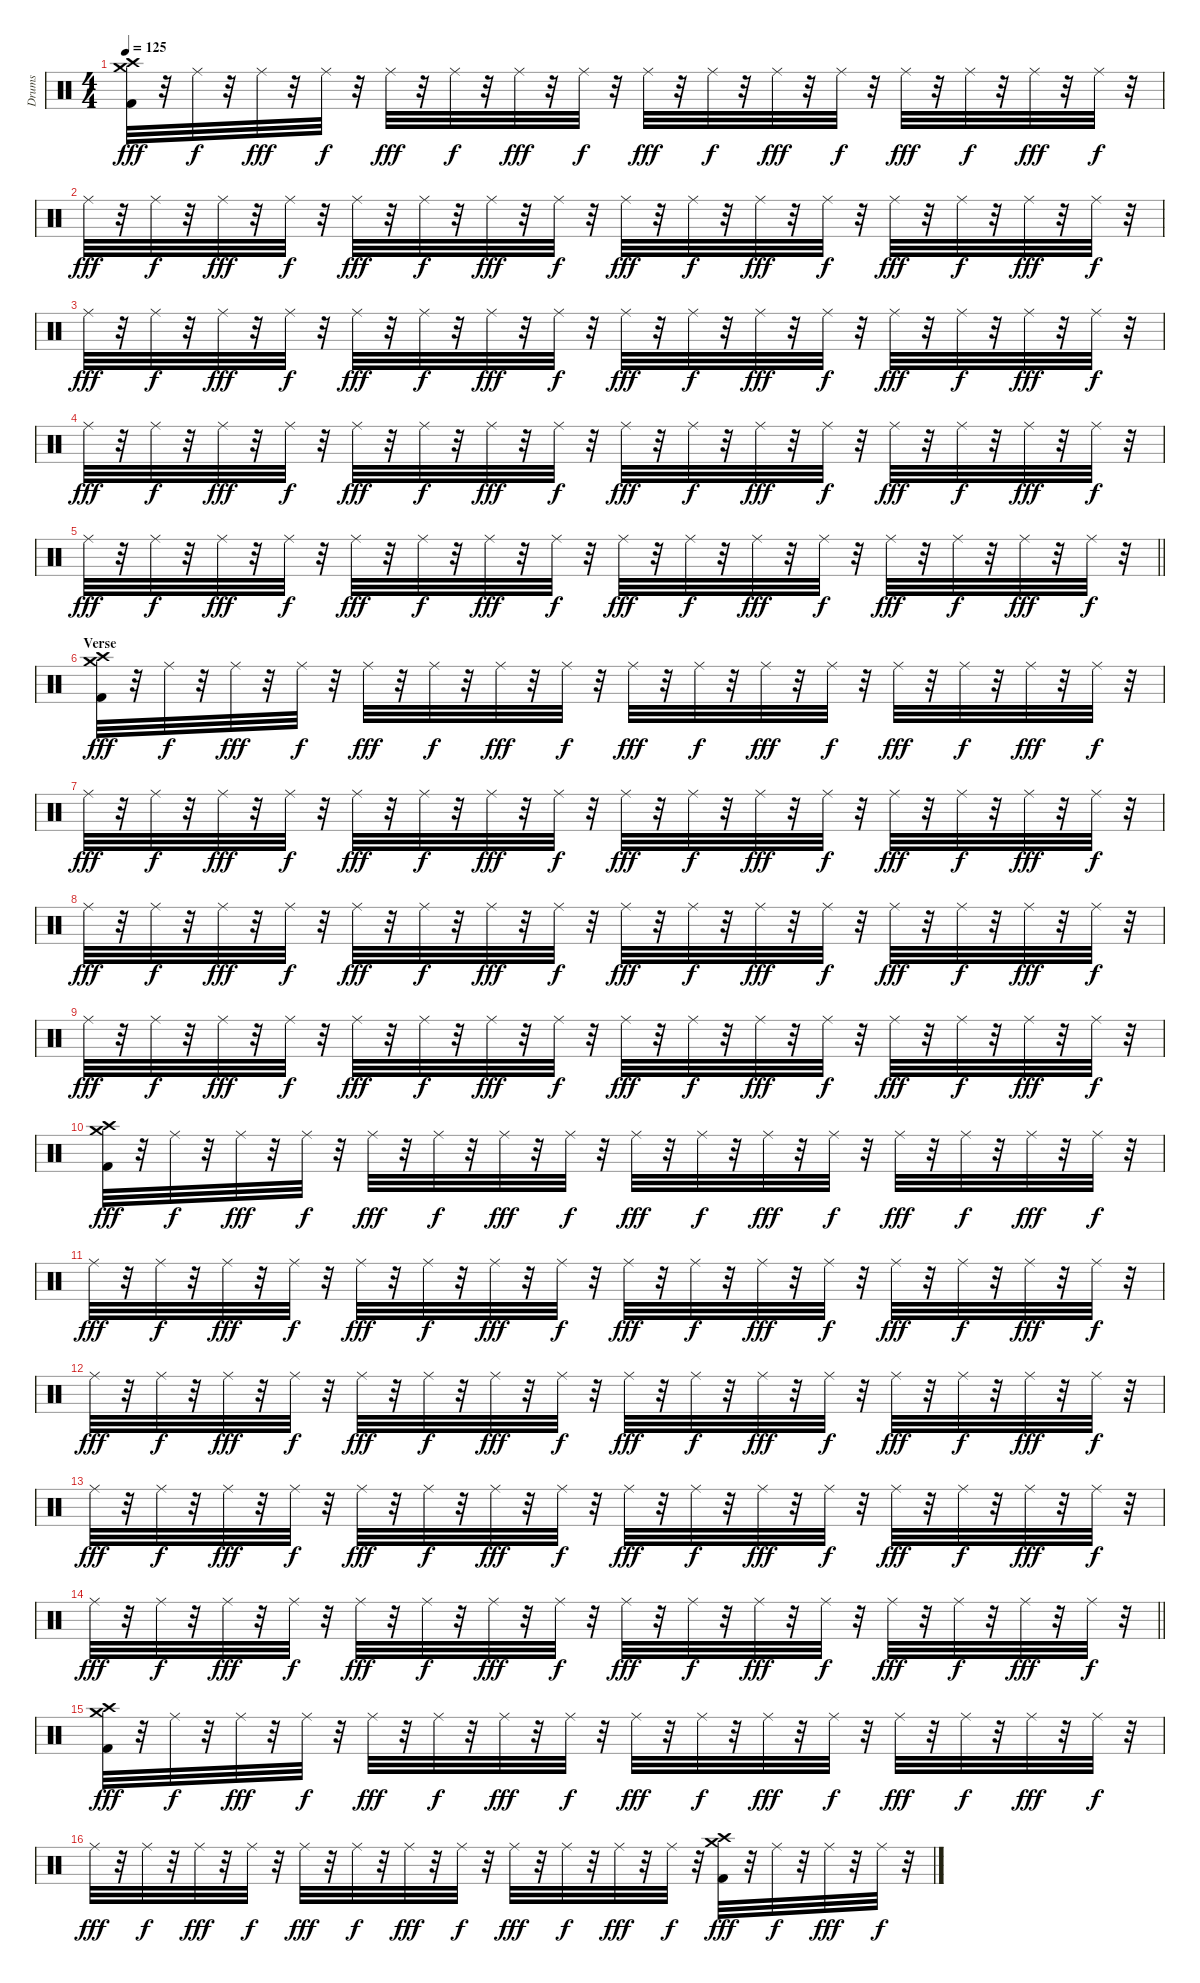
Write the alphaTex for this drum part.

\track ("Drums" "Drums") {instrument percussion}
\staff {score}
\articulation defaults
\ts (4 4)
\tempo 125
\clef neutral
\ks c
("Crash medium (hit)" "Crash high (hit)" "Kick (hit) 2").32{dy fff} r.32 "Ride (middle)".32{dy f} r.32 "Ride (middle)".32{dy fff} r.32 "Ride (middle)".32{dy f} r.32 "Ride (middle)".32{dy fff} r.32 "Ride (middle)".32{dy f} r.32 "Ride (middle)".32{dy fff} r.32 "Ride (middle)".32{dy f} r.32 "Ride (middle)".32{dy fff} r.32 "Ride (middle)".32{dy f} r.32 "Ride (middle)".32{dy fff} r.32 "Ride (middle)".32{dy f} r.32 "Ride (middle)".32{dy fff} r.32 "Ride (middle)".32{dy f} r.32 "Ride (middle)".32{dy fff} r.32 "Ride (middle)".32{dy f} r.32 |
"Ride (middle)".32{dy fff} r.32 "Ride (middle)".32{dy f} r.32 "Ride (middle)".32{dy fff} r.32 "Ride (middle)".32{dy f} r.32 "Ride (middle)".32{dy fff} r.32 "Ride (middle)".32{dy f} r.32 "Ride (middle)".32{dy fff} r.32 "Ride (middle)".32{dy f} r.32 "Ride (middle)".32{dy fff} r.32 "Ride (middle)".32{dy f} r.32 "Ride (middle)".32{dy fff} r.32 "Ride (middle)".32{dy f} r.32 "Ride (middle)".32{dy fff} r.32 "Ride (middle)".32{dy f} r.32 "Ride (middle)".32{dy fff} r.32 "Ride (middle)".32{dy f} r.32 |
"Ride (middle)".32{dy fff} r.32 "Ride (middle)".32{dy f} r.32 "Ride (middle)".32{dy fff} r.32 "Ride (middle)".32{dy f} r.32 "Ride (middle)".32{dy fff} r.32 "Ride (middle)".32{dy f} r.32 "Ride (middle)".32{dy fff} r.32 "Ride (middle)".32{dy f} r.32 "Ride (middle)".32{dy fff} r.32 "Ride (middle)".32{dy f} r.32 "Ride (middle)".32{dy fff} r.32 "Ride (middle)".32{dy f} r.32 "Ride (middle)".32{dy fff} r.32 "Ride (middle)".32{dy f} r.32 "Ride (middle)".32{dy fff} r.32 "Ride (middle)".32{dy f} r.32 |
"Ride (middle)".32{dy fff} r.32 "Ride (middle)".32{dy f} r.32 "Ride (middle)".32{dy fff} r.32 "Ride (middle)".32{dy f} r.32 "Ride (middle)".32{dy fff} r.32 "Ride (middle)".32{dy f} r.32 "Ride (middle)".32{dy fff} r.32 "Ride (middle)".32{dy f} r.32 "Ride (middle)".32{dy fff} r.32 "Ride (middle)".32{dy f} r.32 "Ride (middle)".32{dy fff} r.32 "Ride (middle)".32{dy f} r.32 "Ride (middle)".32{dy fff} r.32 "Ride (middle)".32{dy f} r.32 "Ride (middle)".32{dy fff} r.32 "Ride (middle)".32{dy f} r.32 |
\barLineRight lightlight "Ride (middle)".32{dy fff}
r.32 "Ride (middle)".32{dy f} r.32 "Ride (middle)".32{dy fff} r.32 "Ride (middle)".32{dy f} r.32 "Ride (middle)".32{dy fff} r.32 "Ride (middle)".32{dy f} r.32 "Ride (middle)".32{dy fff} r.32 "Ride (middle)".32{dy f} r.32 "Ride (middle)".32{dy fff} r.32 "Ride (middle)".32{dy f} r.32 "Ride (middle)".32{dy fff} r.32 "Ride (middle)".32{dy f} r.32 "Ride (middle)".32{dy fff} r.32 "Ride (middle)".32{dy f} r.32 "Ride (middle)".32{dy fff} r.32 "Ride (middle)".32{dy f} r.32 |
\section ("" "Verse")
("Crash medium (hit)" "Crash high (hit)" "Kick (hit) 2").32{dy fff} r.32 "Ride (middle)".32{dy f} r.32 "Ride (middle)".32{dy fff} r.32 "Ride (middle)".32{dy f} r.32 "Ride (middle)".32{dy fff} r.32 "Ride (middle)".32{dy f} r.32 "Ride (middle)".32{dy fff} r.32 "Ride (middle)".32{dy f} r.32 "Ride (middle)".32{dy fff} r.32 "Ride (middle)".32{dy f} r.32 "Ride (middle)".32{dy fff} r.32 "Ride (middle)".32{dy f} r.32 "Ride (middle)".32{dy fff} r.32 "Ride (middle)".32{dy f} r.32 "Ride (middle)".32{dy fff} r.32 "Ride (middle)".32{dy f} r.32 |
"Ride (middle)".32{dy fff} r.32 "Ride (middle)".32{dy f} r.32 "Ride (middle)".32{dy fff} r.32 "Ride (middle)".32{dy f} r.32 "Ride (middle)".32{dy fff} r.32 "Ride (middle)".32{dy f} r.32 "Ride (middle)".32{dy fff} r.32 "Ride (middle)".32{dy f} r.32 "Ride (middle)".32{dy fff} r.32 "Ride (middle)".32{dy f} r.32 "Ride (middle)".32{dy fff} r.32 "Ride (middle)".32{dy f} r.32 "Ride (middle)".32{dy fff} r.32 "Ride (middle)".32{dy f} r.32 "Ride (middle)".32{dy fff} r.32 "Ride (middle)".32{dy f} r.32 |
"Ride (middle)".32{dy fff} r.32 "Ride (middle)".32{dy f} r.32 "Ride (middle)".32{dy fff} r.32 "Ride (middle)".32{dy f} r.32 "Ride (middle)".32{dy fff} r.32 "Ride (middle)".32{dy f} r.32 "Ride (middle)".32{dy fff} r.32 "Ride (middle)".32{dy f} r.32 "Ride (middle)".32{dy fff} r.32 "Ride (middle)".32{dy f} r.32 "Ride (middle)".32{dy fff} r.32 "Ride (middle)".32{dy f} r.32 "Ride (middle)".32{dy fff} r.32 "Ride (middle)".32{dy f} r.32 "Ride (middle)".32{dy fff} r.32 "Ride (middle)".32{dy f} r.32 |
"Ride (middle)".32{dy fff} r.32 "Ride (middle)".32{dy f} r.32 "Ride (middle)".32{dy fff} r.32 "Ride (middle)".32{dy f} r.32 "Ride (middle)".32{dy fff} r.32 "Ride (middle)".32{dy f} r.32 "Ride (middle)".32{dy fff} r.32 "Ride (middle)".32{dy f} r.32 "Ride (middle)".32{dy fff} r.32 "Ride (middle)".32{dy f} r.32 "Ride (middle)".32{dy fff} r.32 "Ride (middle)".32{dy f} r.32 "Ride (middle)".32{dy fff} r.32 "Ride (middle)".32{dy f} r.32 "Ride (middle)".32{dy fff} r.32 "Ride (middle)".32{dy f} r.32 |
("Crash medium (hit)" "Crash high (hit)" "Kick (hit) 2").32{dy fff} r.32 "Ride (middle)".32{dy f} r.32 "Ride (middle)".32{dy fff} r.32 "Ride (middle)".32{dy f} r.32 "Ride (middle)".32{dy fff} r.32 "Ride (middle)".32{dy f} r.32 "Ride (middle)".32{dy fff} r.32 "Ride (middle)".32{dy f} r.32 "Ride (middle)".32{dy fff} r.32 "Ride (middle)".32{dy f} r.32 "Ride (middle)".32{dy fff} r.32 "Ride (middle)".32{dy f} r.32 "Ride (middle)".32{dy fff} r.32 "Ride (middle)".32{dy f} r.32 "Ride (middle)".32{dy fff} r.32 "Ride (middle)".32{dy f} r.32 |
"Ride (middle)".32{dy fff} r.32 "Ride (middle)".32{dy f} r.32 "Ride (middle)".32{dy fff} r.32 "Ride (middle)".32{dy f} r.32 "Ride (middle)".32{dy fff} r.32 "Ride (middle)".32{dy f} r.32 "Ride (middle)".32{dy fff} r.32 "Ride (middle)".32{dy f} r.32 "Ride (middle)".32{dy fff} r.32 "Ride (middle)".32{dy f} r.32 "Ride (middle)".32{dy fff} r.32 "Ride (middle)".32{dy f} r.32 "Ride (middle)".32{dy fff} r.32 "Ride (middle)".32{dy f} r.32 "Ride (middle)".32{dy fff} r.32 "Ride (middle)".32{dy f} r.32 |
"Ride (middle)".32{dy fff} r.32 "Ride (middle)".32{dy f} r.32 "Ride (middle)".32{dy fff} r.32 "Ride (middle)".32{dy f} r.32 "Ride (middle)".32{dy fff} r.32 "Ride (middle)".32{dy f} r.32 "Ride (middle)".32{dy fff} r.32 "Ride (middle)".32{dy f} r.32 "Ride (middle)".32{dy fff} r.32 "Ride (middle)".32{dy f} r.32 "Ride (middle)".32{dy fff} r.32 "Ride (middle)".32{dy f} r.32 "Ride (middle)".32{dy fff} r.32 "Ride (middle)".32{dy f} r.32 "Ride (middle)".32{dy fff} r.32 "Ride (middle)".32{dy f} r.32 |
"Ride (middle)".32{dy fff} r.32 "Ride (middle)".32{dy f} r.32 "Ride (middle)".32{dy fff} r.32 "Ride (middle)".32{dy f} r.32 "Ride (middle)".32{dy fff} r.32 "Ride (middle)".32{dy f} r.32 "Ride (middle)".32{dy fff} r.32 "Ride (middle)".32{dy f} r.32 "Ride (middle)".32{dy fff} r.32 "Ride (middle)".32{dy f} r.32 "Ride (middle)".32{dy fff} r.32 "Ride (middle)".32{dy f} r.32 "Ride (middle)".32{dy fff} r.32 "Ride (middle)".32{dy f} r.32 "Ride (middle)".32{dy fff} r.32 "Ride (middle)".32{dy f} r.32 |
\barLineRight lightlight "Ride (middle)".32{dy fff}
r.32 "Ride (middle)".32{dy f} r.32 "Ride (middle)".32{dy fff} r.32 "Ride (middle)".32{dy f} r.32 "Ride (middle)".32{dy fff} r.32 "Ride (middle)".32{dy f} r.32 "Ride (middle)".32{dy fff} r.32 "Ride (middle)".32{dy f} r.32 "Ride (middle)".32{dy fff} r.32 "Ride (middle)".32{dy f} r.32 "Ride (middle)".32{dy fff} r.32 "Ride (middle)".32{dy f} r.32 "Ride (middle)".32{dy fff} r.32 "Ride (middle)".32{dy f} r.32 "Ride (middle)".32{dy fff} r.32 "Ride (middle)".32{dy f} r.32 |
("Crash medium (hit)" "Crash high (hit)" "Kick (hit) 2").32{dy fff} r.32 "Ride (middle)".32{dy f} r.32 "Ride (middle)".32{dy fff} r.32 "Ride (middle)".32{dy f} r.32 "Ride (middle)".32{dy fff} r.32 "Ride (middle)".32{dy f} r.32 "Ride (middle)".32{dy fff} r.32 "Ride (middle)".32{dy f} r.32 "Ride (middle)".32{dy fff} r.32 "Ride (middle)".32{dy f} r.32 "Ride (middle)".32{dy fff} r.32 "Ride (middle)".32{dy f} r.32 "Ride (middle)".32{dy fff} r.32 "Ride (middle)".32{dy f} r.32 "Ride (middle)".32{dy fff} r.32 "Ride (middle)".32{dy f} r.32 |
"Ride (middle)".32{dy fff} r.32 "Ride (middle)".32{dy f} r.32 "Ride (middle)".32{dy fff} r.32 "Ride (middle)".32{dy f} r.32 "Ride (middle)".32{dy fff} r.32 "Ride (middle)".32{dy f} r.32 "Ride (middle)".32{dy fff} r.32 "Ride (middle)".32{dy f} r.32 "Ride (middle)".32{dy fff} r.32 "Ride (middle)".32{dy f} r.32 "Ride (middle)".32{dy fff} r.32 "Ride (middle)".32{dy f} r.32 ("Crash medium (hit)" "Crash high (hit)" "Kick (hit) 2").32{dy fff} r.32 "Ride (middle)".32{dy f} r.32 "Ride (middle)".32{dy fff} r.32 "Ride (middle)".32{dy f} r.32
